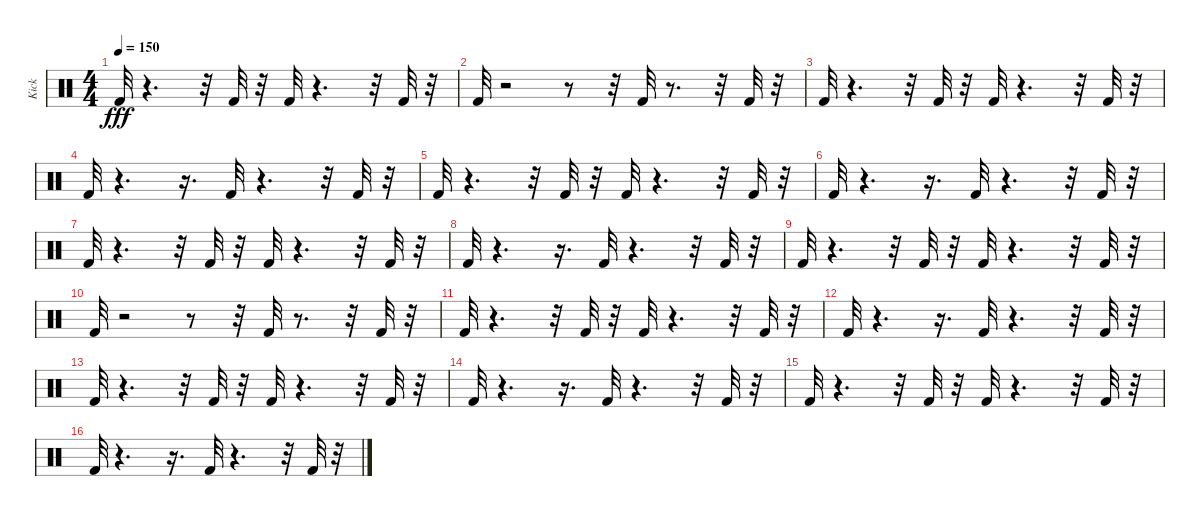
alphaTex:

\track ("Kick" "Kick") {instrument percussion}
\staff {score}
\articulation defaults
\ts (4 4)
\tempo 150
\clef neutral
\ks c "Kick (hit) 2".32{dy fff}
r.4{d} r.32 "Kick (hit) 2".32 r.32 "Kick (hit) 2".32 r.4{d} r.32 "Kick (hit) 2".32 r.32 |
"Kick (hit) 2".32 r.2 r.8 r.32 "Kick (hit) 2".32 r.8{d} r.32 "Kick (hit) 2".32 r.32 |
"Kick (hit) 2".32 r.4{d} r.32 "Kick (hit) 2".32 r.32 "Kick (hit) 2".32 r.4{d} r.32 "Kick (hit) 2".32 r.32 |
"Kick (hit) 2".32 r.4{d} r.16{d} "Kick (hit) 2".32 r.4{d} r.32 "Kick (hit) 2".32 r.32 |
"Kick (hit) 2".32 r.4{d} r.32 "Kick (hit) 2".32 r.32 "Kick (hit) 2".32 r.4{d} r.32 "Kick (hit) 2".32 r.32 |
"Kick (hit) 2".32 r.4{d} r.16{d} "Kick (hit) 2".32 r.4{d} r.32 "Kick (hit) 2".32 r.32 |
"Kick (hit) 2".32 r.4{d} r.32 "Kick (hit) 2".32 r.32 "Kick (hit) 2".32 r.4{d} r.32 "Kick (hit) 2".32 r.32 |
"Kick (hit) 2".32 r.4{d} r.16{d} "Kick (hit) 2".32 r.4{d} r.32 "Kick (hit) 2".32 r.32 |
"Kick (hit) 2".32 r.4{d} r.32 "Kick (hit) 2".32 r.32 "Kick (hit) 2".32 r.4{d} r.32 "Kick (hit) 2".32 r.32 |
"Kick (hit) 2".32 r.2 r.8 r.32 "Kick (hit) 2".32 r.8{d} r.32 "Kick (hit) 2".32 r.32 |
"Kick (hit) 2".32 r.4{d} r.32 "Kick (hit) 2".32 r.32 "Kick (hit) 2".32 r.4{d} r.32 "Kick (hit) 2".32 r.32 |
"Kick (hit) 2".32 r.4{d} r.16{d} "Kick (hit) 2".32 r.4{d} r.32 "Kick (hit) 2".32 r.32 |
"Kick (hit) 2".32 r.4{d} r.32 "Kick (hit) 2".32 r.32 "Kick (hit) 2".32 r.4{d} r.32 "Kick (hit) 2".32 r.32 |
"Kick (hit) 2".32 r.4{d} r.16{d} "Kick (hit) 2".32 r.4{d} r.32 "Kick (hit) 2".32 r.32 |
"Kick (hit) 2".32 r.4{d} r.32 "Kick (hit) 2".32 r.32 "Kick (hit) 2".32 r.4{d} r.32 "Kick (hit) 2".32 r.32 |
"Kick (hit) 2".32 r.4{d} r.16{d} "Kick (hit) 2".32 r.4{d} r.32 "Kick (hit) 2".32 r.32
